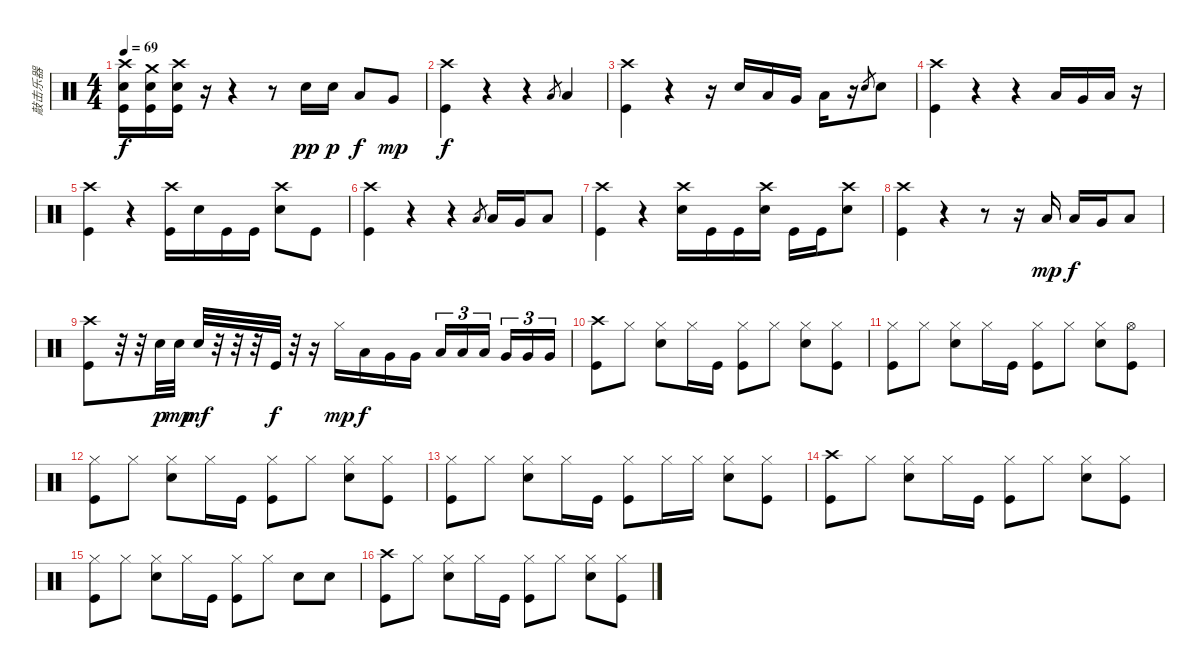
\track ("敲击乐器" "敲击乐器") {instrument percussion}
\staff {score}
\articulation defaults
\ts (4 4)
\tempo 69
\clef neutral
\ks c
("Crash high (hit)" "Snare (hit) 2" "Kick (hit)").16{dy f} ("Crash medium (hit)" "Snare (hit) 2" "Kick (hit)").16 ("Crash high (hit)" "Snare (hit) 2" "Kick (hit)").16 r.16 r.4 r.8 "Snare (hit) 2".16{dy pp} "Snare (hit) 2".16{dy p} "Low Tom (hit)".8{dy f} "Very Low Tom (hit)".8{dy mp} |
("Crash high (hit)" "Kick (hit)").4{dy f} r.4 r.4 "Low Tom (hit)".8{gr} "Low Tom (hit)".4 |
("Crash high (hit)" "Kick (hit)").4 r.4 r.16 "Snare (hit) 2".16 "Low Tom (hit)".16 "Very Low Tom (hit)".16 "Low Floor Tom (hit)".16 r.16 "Snare (hit) 2".8{gr} "Snare (hit) 2".8 |
("Crash high (hit)" "Kick (hit)").4 r.4 r.4 "Low Tom (hit)".16 "Very Low Tom (hit)".16 "Low Floor Tom (hit)".16 r.16 |
("Crash high (hit)" "Kick (hit)").4 r.4 ("Crash high (hit)" "Kick (hit)").16 "Snare (hit) 2".16 "Kick (hit)".16 "Kick (hit)".16 ("Crash high (hit)" "Snare (hit) 2").8 "Kick (hit)".8 |
("Crash high (hit)" "Kick (hit)").4 r.4 r.4 "Low Tom (hit)".8{gr} "Low Tom (hit)".16 "Very Low Tom (hit)".16 "Low Floor Tom (hit)".8 |
("Crash high (hit)" "Kick (hit)").4 r.4 ("Crash high (hit)" "Snare (hit) 2").16 "Kick (hit)".16 "Kick (hit)".16 ("Crash high (hit)" "Snare (hit) 2").16 "Kick (hit)".16 "Kick (hit)".16 ("Crash high (hit)" "Snare (hit) 2").8 |
("Crash high (hit)" "Kick (hit)").4 r.4 r.8 r.16 "Low Tom (hit)".16{dy mp} "Low Tom (hit)".16{dy f} "Very Low Tom (hit)".16 "Low Floor Tom (hit)".8 |
("Crash high (hit)" "Kick (hit)").8 r.32 r.32 "Snare (hit) 2".32{dy p} "Snare (hit) 2".32{dy mp} "Snare (hit) 2".32{dy mf} r.32 r.32 r.32 "Kick (hit)".32{dy f} r.32 r.16 "Hi-Hat (closed)".16{dy mp} "Low Tom (hit)".16{dy f} "Very Low Tom (hit)".16 "Very Low Tom (hit)".16 "Low Tom (hit)".16{tu (3 2)} "Low Tom (hit)".16{tu (3 2)} "Low Tom (hit)".16{tu (3 2)} "Very Low Tom (hit)".16{tu (3 2)} "Very Low Tom (hit)".16{tu (3 2)} "Very Low Tom (hit)".16{tu (3 2)} |
("Crash high (hit)" "Kick (hit)").8 "Hi-Hat (closed)".8 ("Hi-Hat (closed)" "Snare (hit) 2").8 "Hi-Hat (closed)".16 "Kick (hit)".16 ("Hi-Hat (closed)" "Kick (hit)").8 "Hi-Hat (closed)".8 ("Hi-Hat (closed)" "Snare (hit) 2").8 ("Hi-Hat (closed)" "Kick (hit)").8 |
("Hi-Hat (closed)" "Kick (hit)").8 "Hi-Hat (closed)".8 ("Hi-Hat (closed)" "Snare (hit) 2").8 "Hi-Hat (closed)".16 "Kick (hit)".16 ("Hi-Hat (closed)" "Kick (hit)").8 "Hi-Hat (closed)".8 ("Hi-Hat (closed)" "Snare (hit) 2").8 ("Hi-Hat (open)" "Kick (hit)").8 |
("Hi-Hat (closed)" "Kick (hit)").8 "Hi-Hat (closed)".8 ("Hi-Hat (closed)" "Snare (hit) 2").8 "Hi-Hat (closed)".16 "Kick (hit)".16 ("Hi-Hat (closed)" "Kick (hit)").8 "Hi-Hat (closed)".8 ("Hi-Hat (closed)" "Snare (hit) 2").8 ("Hi-Hat (closed)" "Kick (hit)").8 |
("Hi-Hat (closed)" "Kick (hit)").8 "Hi-Hat (closed)".8 ("Hi-Hat (closed)" "Snare (hit) 2").8 "Hi-Hat (closed)".16 "Kick (hit)".16 ("Hi-Hat (closed)" "Kick (hit)").8 "Hi-Hat (closed)".16 "Hi-Hat (closed)".16 ("Hi-Hat (closed)" "Snare (hit) 2").8 ("Hi-Hat (closed)" "Kick (hit)").8 |
("Crash high (hit)" "Kick (hit)").8 "Hi-Hat (closed)".8 ("Hi-Hat (closed)" "Snare (hit) 2").8 "Hi-Hat (closed)".16 "Kick (hit)".16 ("Hi-Hat (closed)" "Kick (hit)").8 "Hi-Hat (closed)".8 ("Hi-Hat (closed)" "Snare (hit) 2").8 ("Hi-Hat (closed)" "Kick (hit)").8 |
("Hi-Hat (closed)" "Kick (hit)").8 "Hi-Hat (closed)".8 ("Hi-Hat (closed)" "Snare (hit) 2").8 "Hi-Hat (closed)".16 "Kick (hit)".16 ("Hi-Hat (closed)" "Kick (hit)").8 "Hi-Hat (closed)".8 "Snare (hit) 2".8 "Snare (hit) 2".8 |
("Crash high (hit)" "Kick (hit)").8 "Hi-Hat (closed)".8 ("Hi-Hat (closed)" "Snare (hit) 2").8 "Hi-Hat (closed)".16 "Kick (hit)".16 ("Hi-Hat (closed)" "Kick (hit)").8 "Hi-Hat (closed)".8 ("Hi-Hat (closed)" "Snare (hit) 2").8 ("Hi-Hat (closed)" "Kick (hit)").8
